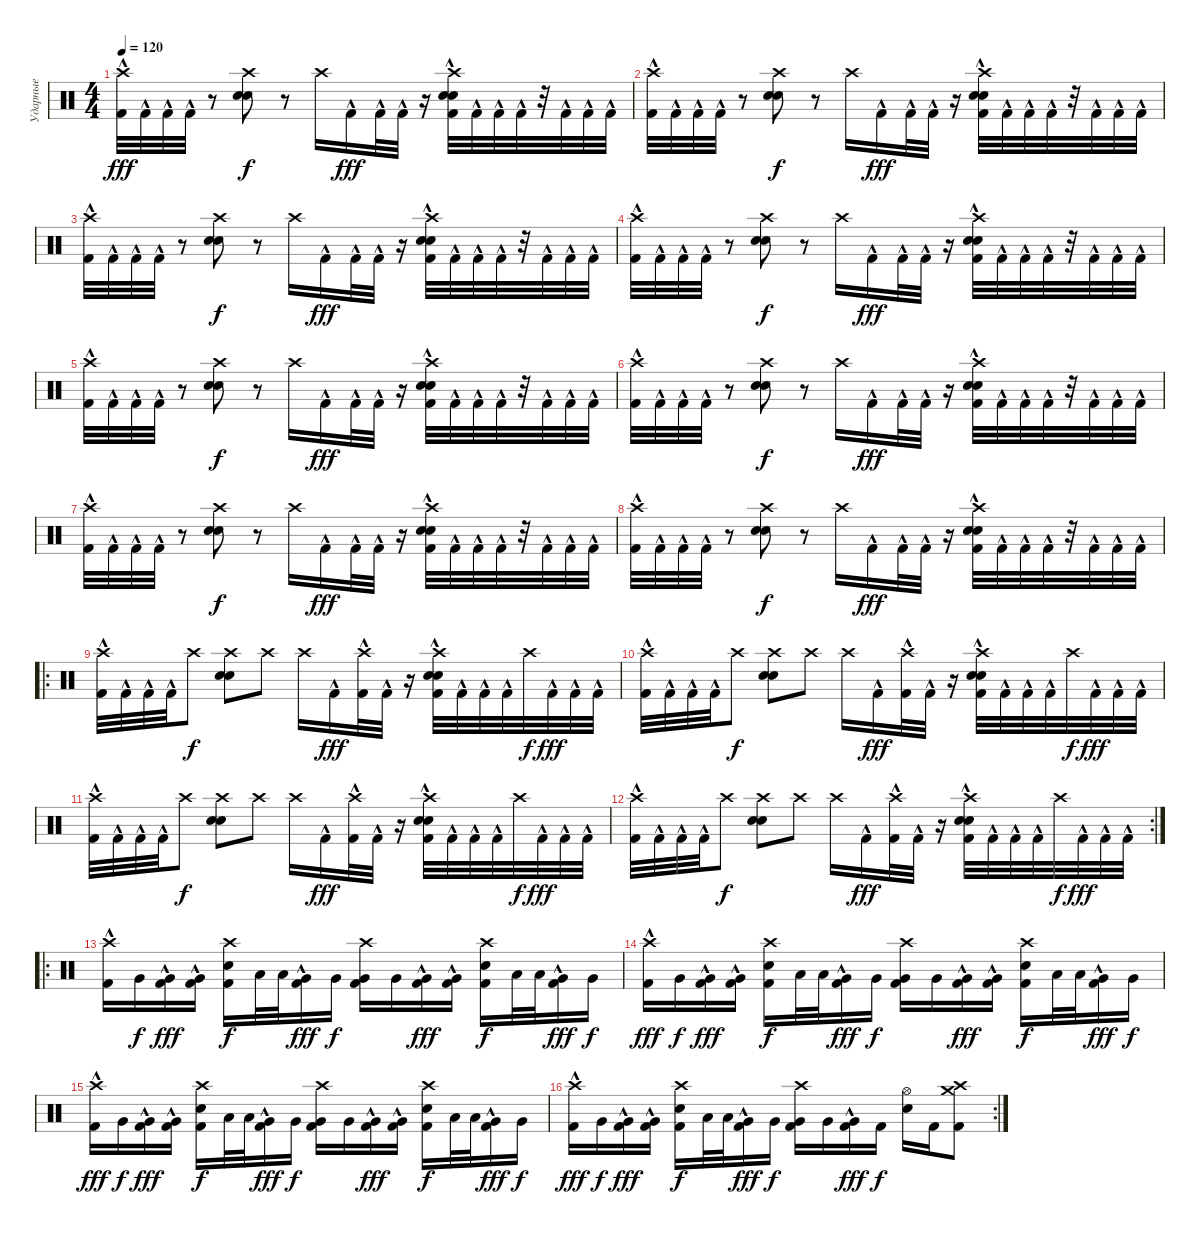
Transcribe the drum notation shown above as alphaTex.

\track ("Ударные" "Ударные") {instrument percussion}
\staff {score}
\articulation defaults
\ts (4 4)
\tempo 120
\clef neutral
\ks c
("Crash high (hit)" "Kick (hit) 2"{hac}).32{dy fff} "Kick (hit) 2"{hac}.32 "Kick (hit) 2"{hac}.32 "Kick (hit) 2"{hac}.32 r.8 ("Crash high (hit)" "Snare (hit) 2" "Electric Snare (hit)").8{dy f} r.8 "Crash high (hit)".16 "Kick (hit) 2"{hac}.16{dy fff} "Kick (hit) 2"{hac}.32 "Kick (hit) 2"{hac}.32 r.16 ("Crash high (hit)" "Snare (hit) 2" "Electric Snare (hit)" "Kick (hit) 2"{hac}).32 "Kick (hit) 2"{hac}.32 "Kick (hit) 2"{hac}.32 "Kick (hit) 2"{hac}.32 r.32 "Kick (hit) 2"{hac}.32 "Kick (hit) 2"{hac}.32 "Kick (hit) 2"{hac}.32 |
("Crash high (hit)" "Kick (hit) 2"{hac}).32 "Kick (hit) 2"{hac}.32 "Kick (hit) 2"{hac}.32 "Kick (hit) 2"{hac}.32 r.8 ("Crash high (hit)" "Snare (hit) 2" "Electric Snare (hit)").8{dy f} r.8 "Crash high (hit)".16 "Kick (hit) 2"{hac}.16{dy fff} "Kick (hit) 2"{hac}.32 "Kick (hit) 2"{hac}.32 r.16 ("Crash high (hit)" "Snare (hit) 2" "Electric Snare (hit)" "Kick (hit) 2"{hac}).32 "Kick (hit) 2"{hac}.32 "Kick (hit) 2"{hac}.32 "Kick (hit) 2"{hac}.32 r.32 "Kick (hit) 2"{hac}.32 "Kick (hit) 2"{hac}.32 "Kick (hit) 2"{hac}.32 |
("Crash high (hit)" "Kick (hit) 2"{hac}).32 "Kick (hit) 2"{hac}.32 "Kick (hit) 2"{hac}.32 "Kick (hit) 2"{hac}.32 r.8 ("Crash high (hit)" "Snare (hit) 2" "Electric Snare (hit)").8{dy f} r.8 "Crash high (hit)".16 "Kick (hit) 2"{hac}.16{dy fff} "Kick (hit) 2"{hac}.32 "Kick (hit) 2"{hac}.32 r.16 ("Crash high (hit)" "Snare (hit) 2" "Electric Snare (hit)" "Kick (hit) 2"{hac}).32 "Kick (hit) 2"{hac}.32 "Kick (hit) 2"{hac}.32 "Kick (hit) 2"{hac}.32 r.32 "Kick (hit) 2"{hac}.32 "Kick (hit) 2"{hac}.32 "Kick (hit) 2"{hac}.32 |
("Crash high (hit)" "Kick (hit) 2"{hac}).32 "Kick (hit) 2"{hac}.32 "Kick (hit) 2"{hac}.32 "Kick (hit) 2"{hac}.32 r.8 ("Crash high (hit)" "Snare (hit) 2" "Electric Snare (hit)").8{dy f} r.8 "Crash high (hit)".16 "Kick (hit) 2"{hac}.16{dy fff} "Kick (hit) 2"{hac}.32 "Kick (hit) 2"{hac}.32 r.16 ("Crash high (hit)" "Snare (hit) 2" "Electric Snare (hit)" "Kick (hit) 2"{hac}).32 "Kick (hit) 2"{hac}.32 "Kick (hit) 2"{hac}.32 "Kick (hit) 2"{hac}.32 r.32 "Kick (hit) 2"{hac}.32 "Kick (hit) 2"{hac}.32 "Kick (hit) 2"{hac}.32 |
("Crash high (hit)" "Kick (hit) 2"{hac}).32 "Kick (hit) 2"{hac}.32 "Kick (hit) 2"{hac}.32 "Kick (hit) 2"{hac}.32 r.8 ("Crash high (hit)" "Snare (hit) 2" "Electric Snare (hit)").8{dy f} r.8 "Crash high (hit)".16 "Kick (hit) 2"{hac}.16{dy fff} "Kick (hit) 2"{hac}.32 "Kick (hit) 2"{hac}.32 r.16 ("Crash high (hit)" "Snare (hit) 2" "Electric Snare (hit)" "Kick (hit) 2"{hac}).32 "Kick (hit) 2"{hac}.32 "Kick (hit) 2"{hac}.32 "Kick (hit) 2"{hac}.32 r.32 "Kick (hit) 2"{hac}.32 "Kick (hit) 2"{hac}.32 "Kick (hit) 2"{hac}.32 |
("Crash high (hit)" "Kick (hit) 2"{hac}).32 "Kick (hit) 2"{hac}.32 "Kick (hit) 2"{hac}.32 "Kick (hit) 2"{hac}.32 r.8 ("Crash high (hit)" "Snare (hit) 2" "Electric Snare (hit)").8{dy f} r.8 "Crash high (hit)".16 "Kick (hit) 2"{hac}.16{dy fff} "Kick (hit) 2"{hac}.32 "Kick (hit) 2"{hac}.32 r.16 ("Crash high (hit)" "Snare (hit) 2" "Electric Snare (hit)" "Kick (hit) 2"{hac}).32 "Kick (hit) 2"{hac}.32 "Kick (hit) 2"{hac}.32 "Kick (hit) 2"{hac}.32 r.32 "Kick (hit) 2"{hac}.32 "Kick (hit) 2"{hac}.32 "Kick (hit) 2"{hac}.32 |
("Crash high (hit)" "Kick (hit) 2"{hac}).32 "Kick (hit) 2"{hac}.32 "Kick (hit) 2"{hac}.32 "Kick (hit) 2"{hac}.32 r.8 ("Crash high (hit)" "Snare (hit) 2" "Electric Snare (hit)").8{dy f} r.8 "Crash high (hit)".16 "Kick (hit) 2"{hac}.16{dy fff} "Kick (hit) 2"{hac}.32 "Kick (hit) 2"{hac}.32 r.16 ("Crash high (hit)" "Snare (hit) 2" "Electric Snare (hit)" "Kick (hit) 2"{hac}).32 "Kick (hit) 2"{hac}.32 "Kick (hit) 2"{hac}.32 "Kick (hit) 2"{hac}.32 r.32 "Kick (hit) 2"{hac}.32 "Kick (hit) 2"{hac}.32 "Kick (hit) 2"{hac}.32 |
("Crash high (hit)" "Kick (hit) 2"{hac}).32 "Kick (hit) 2"{hac}.32 "Kick (hit) 2"{hac}.32 "Kick (hit) 2"{hac}.32 r.8 ("Crash high (hit)" "Snare (hit) 2" "Electric Snare (hit)").8{dy f} r.8 "Crash high (hit)".16 "Kick (hit) 2"{hac}.16{dy fff} "Kick (hit) 2"{hac}.32 "Kick (hit) 2"{hac}.32 r.16 ("Crash high (hit)" "Snare (hit) 2" "Electric Snare (hit)" "Kick (hit) 2"{hac}).32 "Kick (hit) 2"{hac}.32 "Kick (hit) 2"{hac}.32 "Kick (hit) 2"{hac}.32 r.32 "Kick (hit) 2"{hac}.32 "Kick (hit) 2"{hac}.32 "Kick (hit) 2"{hac}.32 |
\ro
("Crash high (hit)" "Kick (hit) 2"{hac}).32 "Kick (hit) 2"{hac}.32 "Kick (hit) 2"{hac}.32 "Kick (hit) 2"{hac}.32 "Crash high (hit)".8{dy f} ("Crash high (hit)" "Snare (hit) 2" "Electric Snare (hit)").8 "Crash high (hit)".8 "Crash high (hit)".16 "Kick (hit) 2"{hac}.16{dy fff} ("Crash high (hit)" "Kick (hit) 2"{hac}).32 "Kick (hit) 2"{hac}.32 r.16 ("Crash high (hit)" "Snare (hit) 2" "Electric Snare (hit)" "Kick (hit) 2"{hac}).32 "Kick (hit) 2"{hac}.32 "Kick (hit) 2"{hac}.32 "Kick (hit) 2"{hac}.32 "Crash high (hit)".32{dy f} "Kick (hit) 2"{hac}.32{dy fff} "Kick (hit) 2"{hac}.32 "Kick (hit) 2"{hac}.32 |
("Crash high (hit)" "Kick (hit) 2"{hac}).32 "Kick (hit) 2"{hac}.32 "Kick (hit) 2"{hac}.32 "Kick (hit) 2"{hac}.32 "Crash high (hit)".8{dy f} ("Crash high (hit)" "Snare (hit) 2" "Electric Snare (hit)").8 "Crash high (hit)".8 "Crash high (hit)".16 "Kick (hit) 2"{hac}.16{dy fff} ("Crash high (hit)" "Kick (hit) 2"{hac}).32 "Kick (hit) 2"{hac}.32 r.16 ("Crash high (hit)" "Snare (hit) 2" "Electric Snare (hit)" "Kick (hit) 2"{hac}).32 "Kick (hit) 2"{hac}.32 "Kick (hit) 2"{hac}.32 "Kick (hit) 2"{hac}.32 "Crash high (hit)".32{dy f} "Kick (hit) 2"{hac}.32{dy fff} "Kick (hit) 2"{hac}.32 "Kick (hit) 2"{hac}.32 |
("Crash high (hit)" "Kick (hit) 2"{hac}).32 "Kick (hit) 2"{hac}.32 "Kick (hit) 2"{hac}.32 "Kick (hit) 2"{hac}.32 "Crash high (hit)".8{dy f} ("Crash high (hit)" "Snare (hit) 2" "Electric Snare (hit)").8 "Crash high (hit)".8 "Crash high (hit)".16 "Kick (hit) 2"{hac}.16{dy fff} ("Crash high (hit)" "Kick (hit) 2"{hac}).32 "Kick (hit) 2"{hac}.32 r.16 ("Crash high (hit)" "Snare (hit) 2" "Electric Snare (hit)" "Kick (hit) 2"{hac}).32 "Kick (hit) 2"{hac}.32 "Kick (hit) 2"{hac}.32 "Kick (hit) 2"{hac}.32 "Crash high (hit)".32{dy f} "Kick (hit) 2"{hac}.32{dy fff} "Kick (hit) 2"{hac}.32 "Kick (hit) 2"{hac}.32 |
\rc 2
("Crash high (hit)" "Kick (hit) 2"{hac}).32 "Kick (hit) 2"{hac}.32 "Kick (hit) 2"{hac}.32 "Kick (hit) 2"{hac}.32 "Crash high (hit)".8{dy f} ("Crash high (hit)" "Snare (hit) 2" "Electric Snare (hit)").8 "Crash high (hit)".8 "Crash high (hit)".16 "Kick (hit) 2"{hac}.16{dy fff} ("Crash high (hit)" "Kick (hit) 2"{hac}).32 "Kick (hit) 2"{hac}.32 r.16 ("Crash high (hit)" "Snare (hit) 2" "Electric Snare (hit)" "Kick (hit) 2"{hac}).32 "Kick (hit) 2"{hac}.32 "Kick (hit) 2"{hac}.32 "Kick (hit) 2"{hac}.32 "Crash high (hit)".32{dy f} "Kick (hit) 2"{hac}.32{dy fff} "Kick (hit) 2"{hac}.32 "Kick (hit) 2"{hac}.32 |
\ro
("Crash high (hit)" "Kick (hit) 2"{hac}).16 "Very Low Tom (hit)".16{dy f} ("Very Low Tom (hit)" "Kick (hit) 2"{hac}).16{dy fff} ("Very Low Tom (hit)" "Kick (hit) 2"{hac}).16 ("Crash high (hit)" "Electric Snare (hit)" "Kick (hit) 2").16{dy f} "Low Tom (hit)".32 "Low Tom (hit)".32 ("Very Low Tom (hit)" "Kick (hit) 2"{hac}).16{dy fff} "Very Low Tom (hit)".16{dy f} ("Crash high (hit)" "Very Low Tom (hit)" "Kick (hit) 2").16 "Very Low Tom (hit)".16 ("Very Low Tom (hit)" "Kick (hit) 2"{hac}).16{dy fff} ("Very Low Tom (hit)" "Kick (hit) 2"{hac}).16 ("Crash high (hit)" "Electric Snare (hit)" "Kick (hit) 2").16{dy f} "Low Tom (hit)".32 "Low Tom (hit)".32 ("Very Low Tom (hit)" "Kick (hit) 2"{hac}).16{dy fff} "Very Low Tom (hit)".16{dy f} |
("Crash high (hit)" "Kick (hit) 2"{hac}).16{dy fff} "Very Low Tom (hit)".16{dy f} ("Very Low Tom (hit)" "Kick (hit) 2"{hac}).16{dy fff} ("Very Low Tom (hit)" "Kick (hit) 2"{hac}).16 ("Crash high (hit)" "Electric Snare (hit)" "Kick (hit) 2").16{dy f} "Low Tom (hit)".32 "Low Tom (hit)".32 ("Very Low Tom (hit)" "Kick (hit) 2"{hac}).16{dy fff} "Very Low Tom (hit)".16{dy f} ("Crash high (hit)" "Very Low Tom (hit)" "Kick (hit) 2").16 "Very Low Tom (hit)".16 ("Very Low Tom (hit)" "Kick (hit) 2"{hac}).16{dy fff} ("Very Low Tom (hit)" "Kick (hit) 2"{hac}).16 ("Crash high (hit)" "Electric Snare (hit)" "Kick (hit) 2").16{dy f} "Low Tom (hit)".32 "Low Tom (hit)".32 ("Very Low Tom (hit)" "Kick (hit) 2"{hac}).16{dy fff} "Very Low Tom (hit)".16{dy f} |
("Crash high (hit)" "Kick (hit) 2"{hac}).16{dy fff} "Very Low Tom (hit)".16{dy f} ("Very Low Tom (hit)" "Kick (hit) 2"{hac}).16{dy fff} ("Very Low Tom (hit)" "Kick (hit) 2"{hac}).16 ("Crash high (hit)" "Electric Snare (hit)" "Kick (hit) 2").16{dy f} "Low Tom (hit)".32 "Low Tom (hit)".32 ("Very Low Tom (hit)" "Kick (hit) 2"{hac}).16{dy fff} "Very Low Tom (hit)".16{dy f} ("Crash high (hit)" "Very Low Tom (hit)" "Kick (hit) 2").16 "Very Low Tom (hit)".16 ("Very Low Tom (hit)" "Kick (hit) 2"{hac}).16{dy fff} ("Very Low Tom (hit)" "Kick (hit) 2"{hac}).16 ("Crash high (hit)" "Electric Snare (hit)" "Kick (hit) 2").16{dy f} "Low Tom (hit)".32 "Low Tom (hit)".32 ("Very Low Tom (hit)" "Kick (hit) 2"{hac}).16{dy fff} "Very Low Tom (hit)".16{dy f} |
\rc 2
("Crash high (hit)" "Kick (hit) 2"{hac}).16{dy fff} "Very Low Tom (hit)".16{dy f} ("Very Low Tom (hit)" "Kick (hit) 2"{hac}).16{dy fff} ("Very Low Tom (hit)" "Kick (hit) 2"{hac}).16 ("Crash high (hit)" "Electric Snare (hit)" "Kick (hit) 2").16{dy f} "Low Tom (hit)".32 "Low Tom (hit)".32 ("Very Low Tom (hit)" "Kick (hit) 2"{hac}).16{dy fff} "Very Low Tom (hit)".16{dy f} ("Crash high (hit)" "Very Low Tom (hit)" "Kick (hit) 2").16 "Very Low Tom (hit)".16 ("Very Low Tom (hit)" "Kick (hit) 2"{hac}).16{dy fff} "Kick (hit) 2".16{dy f} ("Hi-Hat (open)" "Electric Snare (hit)").16 "Kick (hit) 2".16 ("Crash high (hit)" "Crash medium (hit)" "Kick (hit) 2").8
